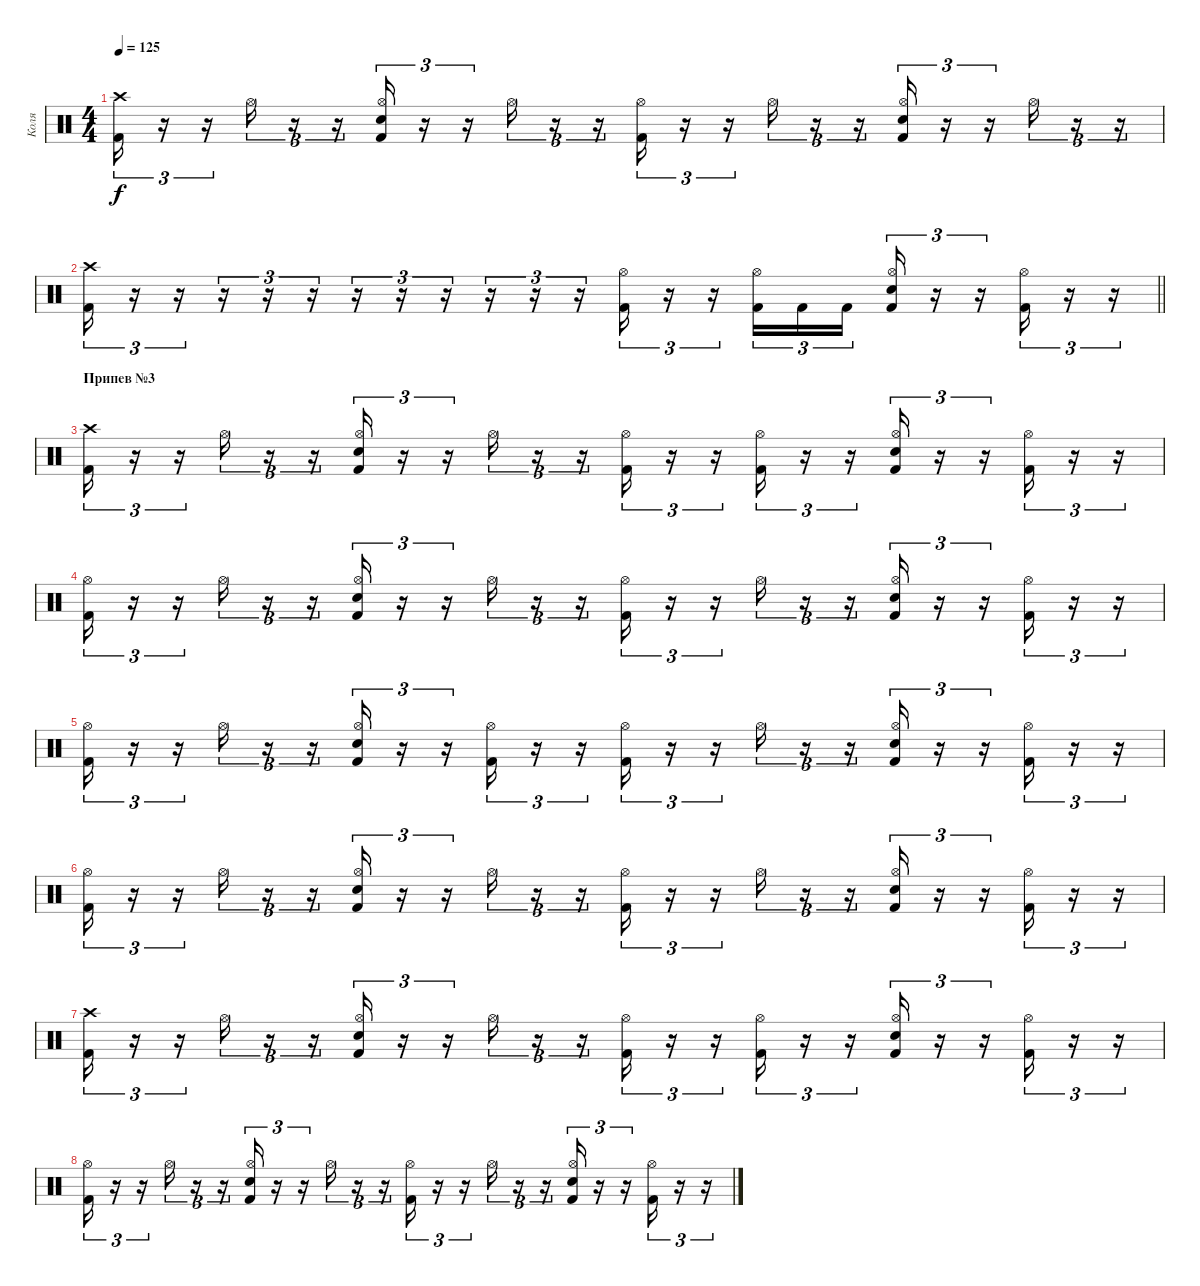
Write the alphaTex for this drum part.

\track ("Коля" "Коля") {instrument percussion}
\staff {score}
\articulation defaults
\ts (4 4)
\tempo 125
\clef neutral
\ks c
("Kick (hit) 2" "Crash high (hit)").16{tu (3 2) dy f} r.16{tu (3 2)} r.16{tu (3 2)} "Hi-Hat (open)".16{tu (3 2)} r.16{tu (3 2)} r.16{tu (3 2)} ("Kick (hit) 2" "Snare (hit) 2" "Hi-Hat (open)").16{tu (3 2)} r.16{tu (3 2)} r.16{tu (3 2)} "Hi-Hat (open)".16{tu (3 2)} r.16{tu (3 2)} r.16{tu (3 2)} ("Kick (hit) 2" "Hi-Hat (open)").16{tu (3 2)} r.16{tu (3 2)} r.16{tu (3 2)} "Hi-Hat (open)".16{tu (3 2)} r.16{tu (3 2)} r.16{tu (3 2)} ("Kick (hit) 2" "Snare (hit) 2" "Hi-Hat (open)").16{tu (3 2)} r.16{tu (3 2)} r.16{tu (3 2)} "Hi-Hat (open)".16{tu (3 2)} r.16{tu (3 2)} r.16{tu (3 2)} |
\barLineRight lightlight
("Kick (hit) 2" "Crash high (hit)").16{tu (3 2)} r.16{tu (3 2)} r.16{tu (3 2)} r.16{tu (3 2)} r.16{tu (3 2)} r.16{tu (3 2)} r.16{tu (3 2)} r.16{tu (3 2)} r.16{tu (3 2)} r.16{tu (3 2)} r.16{tu (3 2)} r.16{tu (3 2)} ("Kick (hit) 2" "Hi-Hat (open)").16{tu (3 2)} r.16{tu (3 2)} r.16{tu (3 2)} ("Kick (hit) 2" "Hi-Hat (open)").16{tu (3 2)} "Kick (hit) 2".16{tu (3 2)} "Kick (hit) 2".16{tu (3 2)} ("Kick (hit) 2" "Snare (hit) 2" "Hi-Hat (open)").16{tu (3 2)} r.16{tu (3 2)} r.16{tu (3 2)} ("Kick (hit) 2" "Hi-Hat (open)").16{tu (3 2)} r.16{tu (3 2)} r.16{tu (3 2)} |
\section ("" "Припев №3")
("Kick (hit) 2" "Crash high (hit)").16{tu (3 2)} r.16{tu (3 2)} r.16{tu (3 2)} "Hi-Hat (open)".16{tu (3 2)} r.16{tu (3 2)} r.16{tu (3 2)} ("Kick (hit) 2" "Snare (hit) 2" "Hi-Hat (open)").16{tu (3 2)} r.16{tu (3 2)} r.16{tu (3 2)} "Hi-Hat (open)".16{tu (3 2)} r.16{tu (3 2)} r.16{tu (3 2)} ("Kick (hit) 2" "Hi-Hat (open)").16{tu (3 2)} r.16{tu (3 2)} r.16{tu (3 2)} ("Kick (hit) 2" "Hi-Hat (open)").16{tu (3 2)} r.16{tu (3 2)} r.16{tu (3 2)} ("Kick (hit) 2" "Snare (hit) 2" "Hi-Hat (open)").16{tu (3 2)} r.16{tu (3 2)} r.16{tu (3 2)} ("Kick (hit) 2" "Hi-Hat (open)").16{tu (3 2)} r.16{tu (3 2)} r.16{tu (3 2)} |
("Kick (hit) 2" "Hi-Hat (open)").16{tu (3 2)} r.16{tu (3 2)} r.16{tu (3 2)} "Hi-Hat (open)".16{tu (3 2)} r.16{tu (3 2)} r.16{tu (3 2)} ("Kick (hit) 2" "Snare (hit) 2" "Hi-Hat (open)").16{tu (3 2)} r.16{tu (3 2)} r.16{tu (3 2)} "Hi-Hat (open)".16{tu (3 2)} r.16{tu (3 2)} r.16{tu (3 2)} ("Kick (hit) 2" "Hi-Hat (open)").16{tu (3 2)} r.16{tu (3 2)} r.16{tu (3 2)} "Hi-Hat (open)".16{tu (3 2)} r.16{tu (3 2)} r.16{tu (3 2)} ("Kick (hit) 2" "Snare (hit) 2" "Hi-Hat (open)").16{tu (3 2)} r.16{tu (3 2)} r.16{tu (3 2)} ("Kick (hit) 2" "Hi-Hat (open)").16{tu (3 2)} r.16{tu (3 2)} r.16{tu (3 2)} |
("Kick (hit) 2" "Hi-Hat (open)").16{tu (3 2)} r.16{tu (3 2)} r.16{tu (3 2)} "Hi-Hat (open)".16{tu (3 2)} r.16{tu (3 2)} r.16{tu (3 2)} ("Kick (hit) 2" "Snare (hit) 2" "Hi-Hat (open)").16{tu (3 2)} r.16{tu (3 2)} r.16{tu (3 2)} ("Kick (hit) 2" "Hi-Hat (open)").16{tu (3 2)} r.16{tu (3 2)} r.16{tu (3 2)} ("Kick (hit) 2" "Hi-Hat (open)").16{tu (3 2)} r.16{tu (3 2)} r.16{tu (3 2)} "Hi-Hat (open)".16{tu (3 2)} r.16{tu (3 2)} r.16{tu (3 2)} ("Kick (hit) 2" "Snare (hit) 2" "Hi-Hat (open)").16{tu (3 2)} r.16{tu (3 2)} r.16{tu (3 2)} ("Kick (hit) 2" "Hi-Hat (open)").16{tu (3 2)} r.16{tu (3 2)} r.16{tu (3 2)} |
("Kick (hit) 2" "Hi-Hat (open)").16{tu (3 2)} r.16{tu (3 2)} r.16{tu (3 2)} "Hi-Hat (open)".16{tu (3 2)} r.16{tu (3 2)} r.16{tu (3 2)} ("Kick (hit) 2" "Snare (hit) 2" "Hi-Hat (open)").16{tu (3 2)} r.16{tu (3 2)} r.16{tu (3 2)} "Hi-Hat (open)".16{tu (3 2)} r.16{tu (3 2)} r.16{tu (3 2)} ("Kick (hit) 2" "Hi-Hat (open)").16{tu (3 2)} r.16{tu (3 2)} r.16{tu (3 2)} "Hi-Hat (open)".16{tu (3 2)} r.16{tu (3 2)} r.16{tu (3 2)} ("Kick (hit) 2" "Snare (hit) 2" "Hi-Hat (open)").16{tu (3 2)} r.16{tu (3 2)} r.16{tu (3 2)} ("Kick (hit) 2" "Hi-Hat (open)").16{tu (3 2)} r.16{tu (3 2)} r.16{tu (3 2)} |
("Kick (hit) 2" "Crash high (hit)").16{tu (3 2)} r.16{tu (3 2)} r.16{tu (3 2)} "Hi-Hat (open)".16{tu (3 2)} r.16{tu (3 2)} r.16{tu (3 2)} ("Kick (hit) 2" "Snare (hit) 2" "Hi-Hat (open)").16{tu (3 2)} r.16{tu (3 2)} r.16{tu (3 2)} "Hi-Hat (open)".16{tu (3 2)} r.16{tu (3 2)} r.16{tu (3 2)} ("Kick (hit) 2" "Hi-Hat (open)").16{tu (3 2)} r.16{tu (3 2)} r.16{tu (3 2)} ("Kick (hit) 2" "Hi-Hat (open)").16{tu (3 2)} r.16{tu (3 2)} r.16{tu (3 2)} ("Kick (hit) 2" "Snare (hit) 2" "Hi-Hat (open)").16{tu (3 2)} r.16{tu (3 2)} r.16{tu (3 2)} ("Kick (hit) 2" "Hi-Hat (open)").16{tu (3 2)} r.16{tu (3 2)} r.16{tu (3 2)} |
("Kick (hit) 2" "Hi-Hat (open)").16{tu (3 2)} r.16{tu (3 2)} r.16{tu (3 2)} "Hi-Hat (open)".16{tu (3 2)} r.16{tu (3 2)} r.16{tu (3 2)} ("Kick (hit) 2" "Snare (hit) 2" "Hi-Hat (open)").16{tu (3 2)} r.16{tu (3 2)} r.16{tu (3 2)} "Hi-Hat (open)".16{tu (3 2)} r.16{tu (3 2)} r.16{tu (3 2)} ("Kick (hit) 2" "Hi-Hat (open)").16{tu (3 2)} r.16{tu (3 2)} r.16{tu (3 2)} "Hi-Hat (open)".16{tu (3 2)} r.16{tu (3 2)} r.16{tu (3 2)} ("Kick (hit) 2" "Snare (hit) 2" "Hi-Hat (open)").16{tu (3 2)} r.16{tu (3 2)} r.16{tu (3 2)} ("Kick (hit) 2" "Hi-Hat (open)").16{tu (3 2)} r.16{tu (3 2)} r.16{tu (3 2)}
